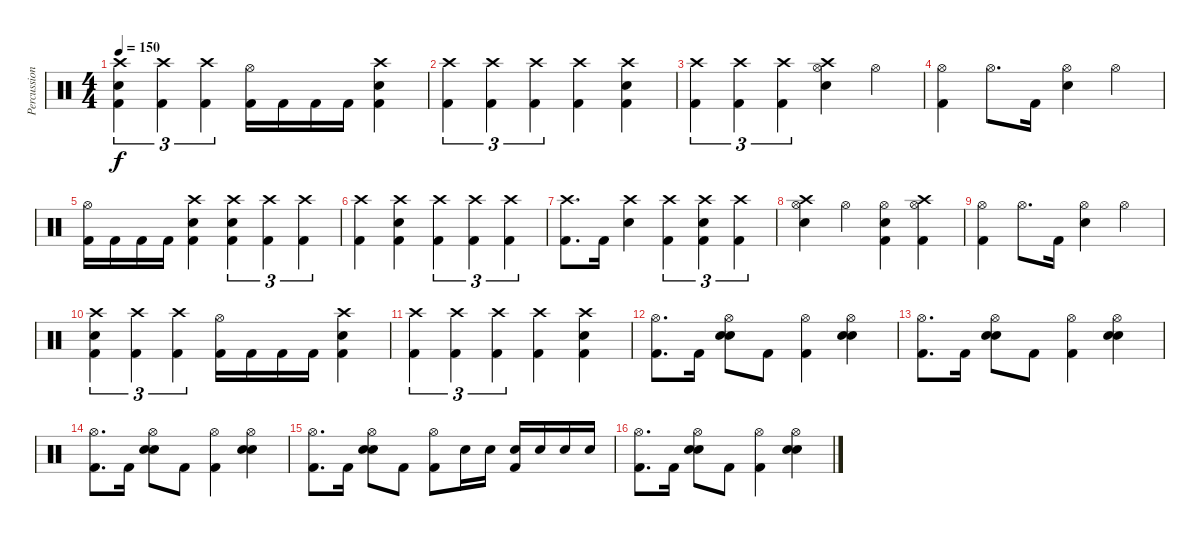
\track ("Percussion" "Percussion") {instrument percussion}
\staff {score}
\articulation defaults
\ts (4 4)
\tempo 150
\clef neutral
\ks c
("Crash high (hit)" "Snare (hit) 2" "Kick (hit) 2").4{tu (3 2) dy f} ("Crash high (hit)" "Kick (hit) 2").4{tu (3 2)} ("Crash high (hit)" "Kick (hit) 2").4{tu (3 2)} ("Hi-Hat (open)" "Kick (hit) 2").16 "Kick (hit) 2".16 "Kick (hit) 2".16 "Kick (hit) 2".16 ("Crash high (hit)" "Snare (hit) 2" "Kick (hit) 2").4 |
("Crash high (hit)" "Kick (hit) 2").4{tu (3 2)} ("Crash high (hit)" "Kick (hit) 2").4{tu (3 2)} ("Crash high (hit)" "Kick (hit) 2").4{tu (3 2)} ("Crash high (hit)" "Kick (hit) 2").4 ("Crash high (hit)" "Snare (hit) 2" "Kick (hit) 2").4 |
("Crash high (hit)" "Kick (hit) 2").4{tu (3 2)} ("Crash high (hit)" "Kick (hit) 2").4{tu (3 2)} ("Crash high (hit)" "Kick (hit) 2").4{tu (3 2)} ("Crash high (hit)" "Hi-Hat (open)" "Snare (hit) 2").4 "Hi-Hat (open)".4 |
("Hi-Hat (open)" "Kick (hit) 2").4 "Hi-Hat (open)".8{d} "Kick (hit) 2".16 ("Hi-Hat (open)" "Snare (hit) 2").4 "Hi-Hat (open)".4 |
("Hi-Hat (open)" "Kick (hit) 2").16 "Kick (hit) 2".16 "Kick (hit) 2".16 "Kick (hit) 2".16 ("Crash high (hit)" "Snare (hit) 2" "Kick (hit) 2").4 ("Crash high (hit)" "Snare (hit) 2" "Kick (hit) 2").4{tu (3 2)} ("Crash high (hit)" "Kick (hit) 2").4{tu (3 2)} ("Crash high (hit)" "Kick (hit) 2").4{tu (3 2)} |
("Crash high (hit)" "Kick (hit) 2").4 ("Crash high (hit)" "Snare (hit) 2" "Kick (hit) 2").4 ("Crash high (hit)" "Kick (hit) 2").4{tu (3 2)} ("Crash high (hit)" "Kick (hit) 2").4{tu (3 2)} ("Crash high (hit)" "Kick (hit) 2").4{tu (3 2)} |
("Crash high (hit)" "Kick (hit) 2").8{d} "Kick (hit) 2".16 ("Crash high (hit)" "Snare (hit) 2").4 ("Crash high (hit)" "Kick (hit) 2").4{tu (3 2)} ("Crash high (hit)" "Snare (hit) 2" "Kick (hit) 2").4{tu (3 2)} ("Crash high (hit)" "Kick (hit) 2").4{tu (3 2)} |
("Crash high (hit)" "Hi-Hat (open)" "Snare (hit) 2").4 "Hi-Hat (open)".4 ("Hi-Hat (open)" "Snare (hit) 2" "Kick (hit) 2").4 ("Crash high (hit)" "Hi-Hat (open)" "Kick (hit) 2").4 |
("Hi-Hat (open)" "Kick (hit) 2").4 "Hi-Hat (open)".8{d} "Kick (hit) 2".16 ("Hi-Hat (open)" "Snare (hit) 2").4 "Hi-Hat (open)".4 |
("Crash high (hit)" "Snare (hit) 2" "Kick (hit) 2").4{tu (3 2)} ("Crash high (hit)" "Kick (hit) 2").4{tu (3 2)} ("Crash high (hit)" "Kick (hit) 2").4{tu (3 2)} ("Hi-Hat (open)" "Kick (hit) 2").16 "Kick (hit) 2".16 "Kick (hit) 2".16 "Kick (hit) 2".16 ("Crash high (hit)" "Snare (hit) 2" "Kick (hit) 2").4 |
("Crash high (hit)" "Kick (hit) 2").4{tu (3 2)} ("Crash high (hit)" "Kick (hit) 2").4{tu (3 2)} ("Crash high (hit)" "Kick (hit) 2").4{tu (3 2)} ("Crash high (hit)" "Kick (hit) 2").4 ("Crash high (hit)" "Snare (hit) 2" "Kick (hit) 2").4 |
("Hi-Hat (open)" "Kick (hit) 2").8{d} "Kick (hit) 2".16 ("Hi-Hat (open)" "Snare (hit) 2" "Snare (hit) 2").8 "Kick (hit) 2".8 ("Hi-Hat (open)" "Kick (hit) 2").4 ("Hi-Hat (open)" "Snare (hit) 2" "Snare (hit) 2").4 |
("Hi-Hat (open)" "Kick (hit) 2").8{d} "Kick (hit) 2".16 ("Hi-Hat (open)" "Snare (hit) 2" "Snare (hit) 2").8 "Kick (hit) 2".8 ("Hi-Hat (open)" "Kick (hit) 2").4 ("Hi-Hat (open)" "Snare (hit) 2" "Snare (hit) 2").4 |
("Hi-Hat (open)" "Kick (hit) 2").8{d} "Kick (hit) 2".16 ("Hi-Hat (open)" "Snare (hit) 2" "Snare (hit) 2").8 "Kick (hit) 2".8 ("Hi-Hat (open)" "Kick (hit) 2").4 ("Hi-Hat (open)" "Snare (hit) 2" "Snare (hit) 2").4 |
("Hi-Hat (open)" "Kick (hit) 2").8{d} "Kick (hit) 2".16 ("Hi-Hat (open)" "Snare (hit) 2" "Snare (hit) 2").8 "Kick (hit) 2".8 ("Hi-Hat (open)" "Kick (hit) 2").8 "Snare (hit) 2".16 "Snare (hit) 2".16 ("Snare (hit) 2" "Kick (hit) 2").16 "Snare (hit) 2".16 "Snare (hit) 2".16 "Snare (hit) 2".16 |
("Hi-Hat (open)" "Kick (hit) 2").8{d} "Kick (hit) 2".16 ("Hi-Hat (open)" "Snare (hit) 2" "Snare (hit) 2").8 "Kick (hit) 2".8 ("Hi-Hat (open)" "Kick (hit) 2").4 ("Hi-Hat (open)" "Snare (hit) 2" "Snare (hit) 2").4
